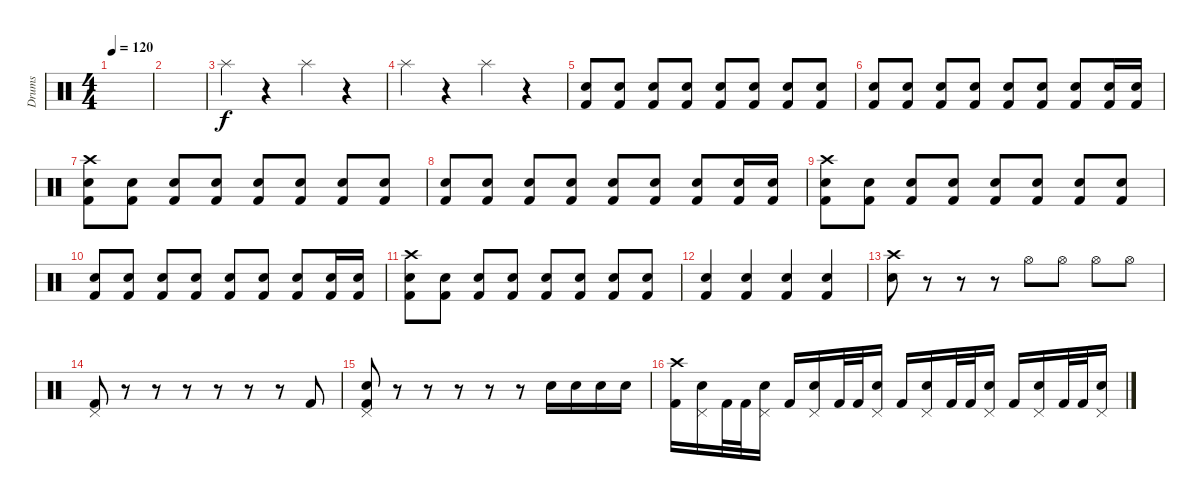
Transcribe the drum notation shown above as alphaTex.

\track ("Drums" "Drums") {instrument percussion}
\staff {score}
\articulation defaults
\ts (4 4)
\tempo 120
\clef neutral
\ks c
|
|
"Splash (hit)".4 r.4 "Splash (hit)".4 r.4 |
"Splash (hit)".4 r.4 "Splash (hit)".4 r.4 |
("Kick (hit) 2" "Electric Snare (hit)").8 ("Kick (hit) 2" "Electric Snare (hit)").8 ("Kick (hit) 2" "Electric Snare (hit)").8 ("Kick (hit) 2" "Electric Snare (hit)").8 ("Kick (hit) 2" "Electric Snare (hit)").8 ("Kick (hit) 2" "Electric Snare (hit)").8 ("Kick (hit) 2" "Electric Snare (hit)").8 ("Kick (hit) 2" "Electric Snare (hit)").8 |
("Kick (hit) 2" "Electric Snare (hit)").8 ("Kick (hit) 2" "Electric Snare (hit)").8 ("Kick (hit) 2" "Electric Snare (hit)").8 ("Kick (hit) 2" "Electric Snare (hit)").8 ("Kick (hit) 2" "Electric Snare (hit)").8 ("Kick (hit) 2" "Electric Snare (hit)").8 ("Kick (hit) 2" "Electric Snare (hit)").8 ("Kick (hit) 2" "Electric Snare (hit)").16 ("Kick (hit) 2" "Electric Snare (hit)").16 |
("Kick (hit) 2" "Electric Snare (hit)" "Crash high (hit)").8 ("Kick (hit) 2" "Electric Snare (hit)").8 ("Kick (hit) 2" "Electric Snare (hit)").8 ("Kick (hit) 2" "Electric Snare (hit)").8 ("Kick (hit) 2" "Electric Snare (hit)").8 ("Kick (hit) 2" "Electric Snare (hit)").8 ("Kick (hit) 2" "Electric Snare (hit)").8 ("Kick (hit) 2" "Electric Snare (hit)").8 |
("Kick (hit) 2" "Electric Snare (hit)").8 ("Kick (hit) 2" "Electric Snare (hit)").8 ("Kick (hit) 2" "Electric Snare (hit)").8 ("Kick (hit) 2" "Electric Snare (hit)").8 ("Kick (hit) 2" "Electric Snare (hit)").8 ("Kick (hit) 2" "Electric Snare (hit)").8 ("Kick (hit) 2" "Electric Snare (hit)").8 ("Kick (hit) 2" "Electric Snare (hit)").16 ("Kick (hit) 2" "Electric Snare (hit)").16 |
("Kick (hit) 2" "Electric Snare (hit)" "Crash high (hit)").8 ("Kick (hit) 2" "Electric Snare (hit)").8 ("Kick (hit) 2" "Electric Snare (hit)").8 ("Kick (hit) 2" "Electric Snare (hit)").8 ("Kick (hit) 2" "Electric Snare (hit)").8 ("Kick (hit) 2" "Electric Snare (hit)").8 ("Kick (hit) 2" "Electric Snare (hit)").8 ("Kick (hit) 2" "Electric Snare (hit)").8 |
("Kick (hit) 2" "Electric Snare (hit)").8 ("Kick (hit) 2" "Electric Snare (hit)").8 ("Kick (hit) 2" "Electric Snare (hit)").8 ("Kick (hit) 2" "Electric Snare (hit)").8 ("Kick (hit) 2" "Electric Snare (hit)").8 ("Kick (hit) 2" "Electric Snare (hit)").8 ("Kick (hit) 2" "Electric Snare (hit)").8 ("Kick (hit) 2" "Electric Snare (hit)").16 ("Kick (hit) 2" "Electric Snare (hit)").16 |
("Kick (hit) 2" "Electric Snare (hit)" "Crash high (hit)").8 ("Kick (hit) 2" "Electric Snare (hit)").8 ("Kick (hit) 2" "Electric Snare (hit)").8 ("Kick (hit) 2" "Electric Snare (hit)").8 ("Kick (hit) 2" "Electric Snare (hit)").8 ("Kick (hit) 2" "Electric Snare (hit)").8 ("Kick (hit) 2" "Electric Snare (hit)").8 ("Kick (hit) 2" "Electric Snare (hit)").8 |
("Kick (hit) 2" "Electric Snare (hit)").4 ("Kick (hit) 2" "Electric Snare (hit)").4 ("Kick (hit) 2" "Electric Snare (hit)").4 ("Kick (hit) 2" "Electric Snare (hit)").4 |
("Crash high (hit)" "Electric Snare (hit)").8 r.8 r.8 r.8 "Hi-Hat (open)".8 "Hi-Hat (open)".8 "Hi-Hat (open)".8 "Hi-Hat (open)".8 |
("Kick (hit) 2" "Pedal Hi-Hat (hit)").8 r.8 r.8 r.8 r.8 r.8 r.8 "Kick (hit) 2".8 |
("Kick (hit) 2" "Electric Snare (hit)" "Pedal Hi-Hat (hit)").8 r.8 r.8 r.8 r.8 r.8 "Electric Snare (hit)".16 "Electric Snare (hit)".16 "Electric Snare (hit)".16 "Electric Snare (hit)".16 |
("Kick (hit) 2" "Crash high (hit)").16 ("Electric Snare (hit)" "Pedal Hi-Hat (hit)").16 "Kick (hit) 2".32 "Kick (hit) 2".32 ("Electric Snare (hit)" "Pedal Hi-Hat (hit)").16 "Kick (hit) 2".16 ("Electric Snare (hit)" "Pedal Hi-Hat (hit)").16 "Kick (hit) 2".32 "Kick (hit) 2".32 ("Electric Snare (hit)" "Pedal Hi-Hat (hit)").16 "Kick (hit) 2".16 ("Electric Snare (hit)" "Pedal Hi-Hat (hit)").16 "Kick (hit) 2".32 "Kick (hit) 2".32 ("Electric Snare (hit)" "Pedal Hi-Hat (hit)").16 "Kick (hit) 2".16 ("Electric Snare (hit)" "Pedal Hi-Hat (hit)").16 "Kick (hit) 2".32 "Kick (hit) 2".32 ("Electric Snare (hit)" "Pedal Hi-Hat (hit)").16
